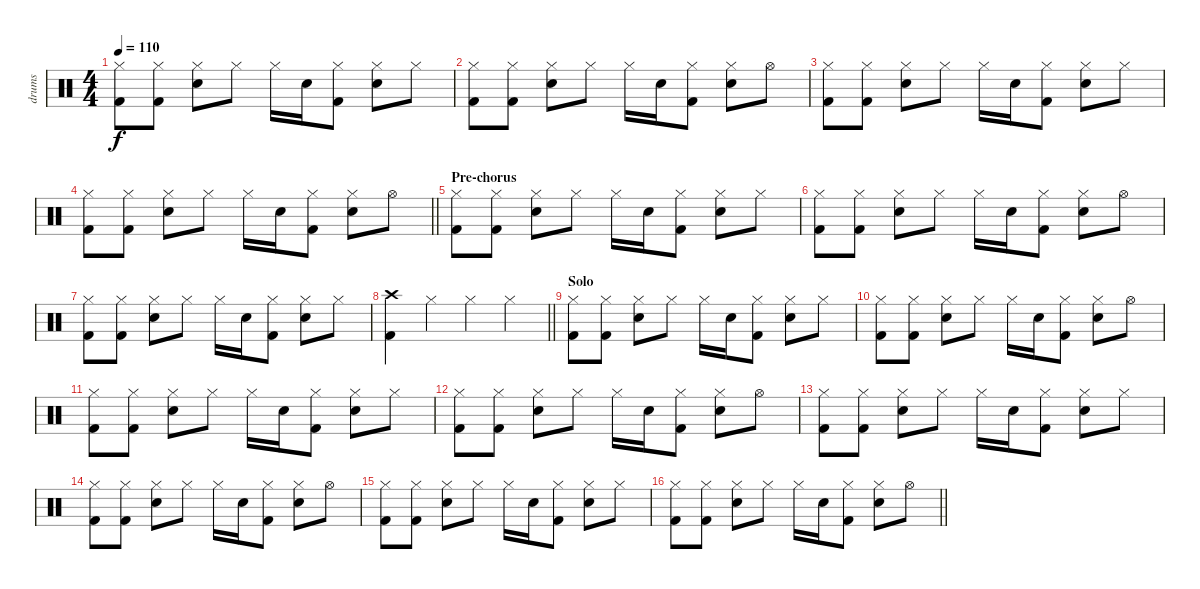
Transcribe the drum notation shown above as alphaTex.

\track ("drums" "drums") {instrument percussion}
\staff {score}
\articulation defaults
\ts (4 4)
\tempo 110
\clef neutral
\ks c
("Hi-Hat (closed)" "Kick (hit) 2").8{dy f} ("Hi-Hat (closed)" "Kick (hit) 2").8 ("Hi-Hat (closed)" "Electric Snare (hit)").8 "Hi-Hat (closed)".8 "Hi-Hat (closed)".16 "Electric Snare (hit)".16 ("Hi-Hat (closed)" "Kick (hit) 2").8 ("Hi-Hat (closed)" "Electric Snare (hit)").8 "Hi-Hat (closed)".8 |
("Hi-Hat (closed)" "Kick (hit) 2").8 ("Hi-Hat (closed)" "Kick (hit) 2").8 ("Hi-Hat (closed)" "Electric Snare (hit)").8 "Hi-Hat (closed)".8 "Hi-Hat (closed)".16 "Electric Snare (hit)".16 ("Hi-Hat (closed)" "Kick (hit) 2").8 ("Hi-Hat (closed)" "Electric Snare (hit)").8 "Hi-Hat (open)".8 |
("Hi-Hat (closed)" "Kick (hit) 2").8 ("Hi-Hat (closed)" "Kick (hit) 2").8 ("Hi-Hat (closed)" "Electric Snare (hit)").8 "Hi-Hat (closed)".8 "Hi-Hat (closed)".16 "Electric Snare (hit)".16 ("Hi-Hat (closed)" "Kick (hit) 2").8 ("Hi-Hat (closed)" "Electric Snare (hit)").8 "Hi-Hat (closed)".8 |
\barLineRight lightlight
("Hi-Hat (closed)" "Kick (hit) 2").8 ("Hi-Hat (closed)" "Kick (hit) 2").8 ("Hi-Hat (closed)" "Electric Snare (hit)").8 "Hi-Hat (closed)".8 "Hi-Hat (closed)".16 "Electric Snare (hit)".16 ("Hi-Hat (closed)" "Kick (hit) 2").8 ("Hi-Hat (closed)" "Electric Snare (hit)").8 "Hi-Hat (open)".8 |
\section ("" "Pre-chorus")
("Hi-Hat (closed)" "Kick (hit) 2").8 ("Hi-Hat (closed)" "Kick (hit) 2").8 ("Hi-Hat (closed)" "Electric Snare (hit)").8 "Hi-Hat (closed)".8 "Hi-Hat (closed)".16 "Electric Snare (hit)".16 ("Hi-Hat (closed)" "Kick (hit) 2").8 ("Hi-Hat (closed)" "Electric Snare (hit)").8 "Hi-Hat (closed)".8 |
("Hi-Hat (closed)" "Kick (hit) 2").8 ("Hi-Hat (closed)" "Kick (hit) 2").8 ("Hi-Hat (closed)" "Electric Snare (hit)").8 "Hi-Hat (closed)".8 "Hi-Hat (closed)".16 "Electric Snare (hit)".16 ("Hi-Hat (closed)" "Kick (hit) 2").8 ("Hi-Hat (closed)" "Electric Snare (hit)").8 "Hi-Hat (open)".8 |
("Hi-Hat (closed)" "Kick (hit) 2").8 ("Hi-Hat (closed)" "Kick (hit) 2").8 ("Hi-Hat (closed)" "Electric Snare (hit)").8 "Hi-Hat (closed)".8 "Hi-Hat (closed)".16 "Electric Snare (hit)".16 ("Hi-Hat (closed)" "Kick (hit) 2").8 ("Hi-Hat (closed)" "Electric Snare (hit)").8 "Hi-Hat (closed)".8 |
\barLineRight lightlight
("Crash high (hit)" "Kick (hit) 2").4 "Hi-Hat (closed)".4 "Hi-Hat (closed)".4 "Hi-Hat (closed)".4 |
\section ("" "Solo")
("Hi-Hat (closed)" "Kick (hit) 2").8 ("Hi-Hat (closed)" "Kick (hit) 2").8 ("Hi-Hat (closed)" "Electric Snare (hit)").8 "Hi-Hat (closed)".8 "Hi-Hat (closed)".16 "Electric Snare (hit)".16 ("Hi-Hat (closed)" "Kick (hit) 2").8 ("Hi-Hat (closed)" "Electric Snare (hit)").8 "Hi-Hat (closed)".8 |
("Hi-Hat (closed)" "Kick (hit) 2").8 ("Hi-Hat (closed)" "Kick (hit) 2").8 ("Hi-Hat (closed)" "Electric Snare (hit)").8 "Hi-Hat (closed)".8 "Hi-Hat (closed)".16 "Electric Snare (hit)".16 ("Hi-Hat (closed)" "Kick (hit) 2").8 ("Hi-Hat (closed)" "Electric Snare (hit)").8 "Hi-Hat (open)".8 |
("Hi-Hat (closed)" "Kick (hit) 2").8 ("Hi-Hat (closed)" "Kick (hit) 2").8 ("Hi-Hat (closed)" "Electric Snare (hit)").8 "Hi-Hat (closed)".8 "Hi-Hat (closed)".16 "Electric Snare (hit)".16 ("Hi-Hat (closed)" "Kick (hit) 2").8 ("Hi-Hat (closed)" "Electric Snare (hit)").8 "Hi-Hat (closed)".8 |
("Hi-Hat (closed)" "Kick (hit) 2").8 ("Hi-Hat (closed)" "Kick (hit) 2").8 ("Hi-Hat (closed)" "Electric Snare (hit)").8 "Hi-Hat (closed)".8 "Hi-Hat (closed)".16 "Electric Snare (hit)".16 ("Hi-Hat (closed)" "Kick (hit) 2").8 ("Hi-Hat (closed)" "Electric Snare (hit)").8 "Hi-Hat (open)".8 |
("Hi-Hat (closed)" "Kick (hit) 2").8 ("Hi-Hat (closed)" "Kick (hit) 2").8 ("Hi-Hat (closed)" "Electric Snare (hit)").8 "Hi-Hat (closed)".8 "Hi-Hat (closed)".16 "Electric Snare (hit)".16 ("Hi-Hat (closed)" "Kick (hit) 2").8 ("Hi-Hat (closed)" "Electric Snare (hit)").8 "Hi-Hat (closed)".8 |
("Hi-Hat (closed)" "Kick (hit) 2").8 ("Hi-Hat (closed)" "Kick (hit) 2").8 ("Hi-Hat (closed)" "Electric Snare (hit)").8 "Hi-Hat (closed)".8 "Hi-Hat (closed)".16 "Electric Snare (hit)".16 ("Hi-Hat (closed)" "Kick (hit) 2").8 ("Hi-Hat (closed)" "Electric Snare (hit)").8 "Hi-Hat (open)".8 |
("Hi-Hat (closed)" "Kick (hit) 2").8 ("Hi-Hat (closed)" "Kick (hit) 2").8 ("Hi-Hat (closed)" "Electric Snare (hit)").8 "Hi-Hat (closed)".8 "Hi-Hat (closed)".16 "Electric Snare (hit)".16 ("Hi-Hat (closed)" "Kick (hit) 2").8 ("Hi-Hat (closed)" "Electric Snare (hit)").8 "Hi-Hat (closed)".8 |
\barLineRight lightlight
("Hi-Hat (closed)" "Kick (hit) 2").8 ("Hi-Hat (closed)" "Kick (hit) 2").8 ("Hi-Hat (closed)" "Electric Snare (hit)").8 "Hi-Hat (closed)".8 "Hi-Hat (closed)".16 "Electric Snare (hit)".16 ("Hi-Hat (closed)" "Kick (hit) 2").8 ("Hi-Hat (closed)" "Electric Snare (hit)").8 "Hi-Hat (open)".8
